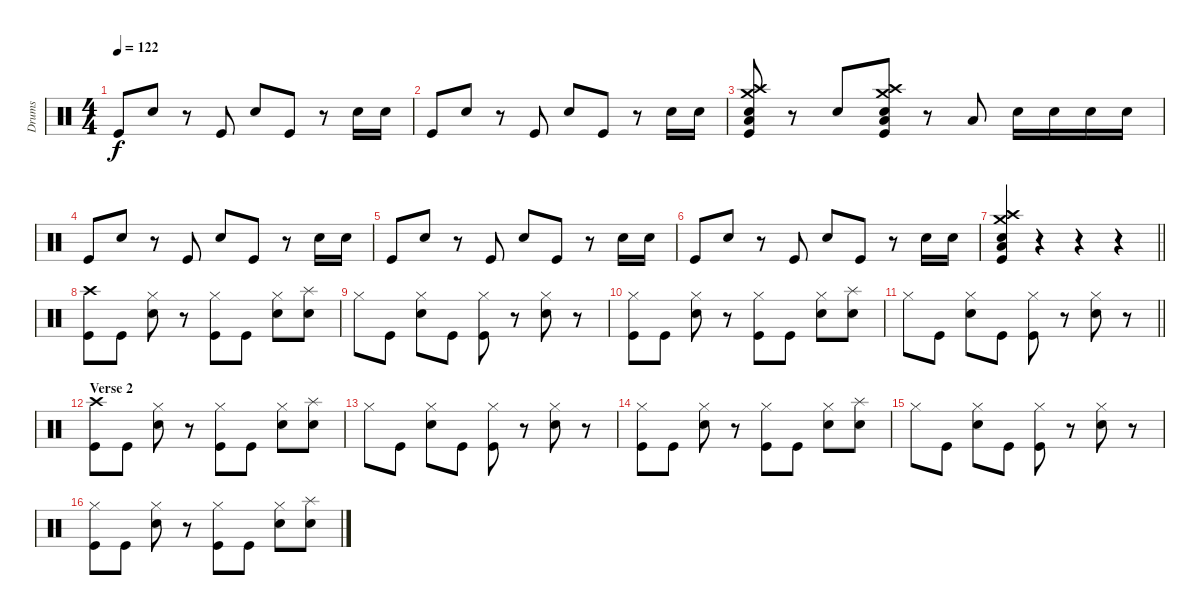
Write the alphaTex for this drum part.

\track ("Drums" "Drums") {instrument percussion}
\staff {score}
\articulation defaults
\ts (4 4)
\tempo 122
\clef neutral
\ks c "Kick (hit)".8{dy f} "Snare (hit) 2".8
r.8 "Kick (hit)".8 "Snare (hit) 2".8 "Kick (hit)".8 r.8 "Snare (hit) 2".16 "Snare (hit) 2".16 |
"Kick (hit)".8 "Snare (hit) 2".8 r.8 "Kick (hit)".8 "Snare (hit) 2".8 "Kick (hit)".8 r.8 "Snare (hit) 2".16 "Snare (hit) 2".16 |
("Crash high (hit)" "Crash medium (hit)" "Snare (hit) 2" "Low Tom (hit)" "Kick (hit)").8 r.8 "Snare (hit) 2".8 ("Crash high (hit)" "Crash medium (hit)" "Snare (hit) 2" "Low Tom (hit)" "Kick (hit)").8 r.8 "Low Tom (hit)".8 "Snare (hit) 2".16 "Snare (hit) 2".16 "Snare (hit) 2".16 "Snare (hit) 2".16 |
"Kick (hit)".8 "Snare (hit) 2".8 r.8 "Kick (hit)".8 "Snare (hit) 2".8 "Kick (hit)".8 r.8 "Snare (hit) 2".16 "Snare (hit) 2".16 |
"Kick (hit)".8 "Snare (hit) 2".8 r.8 "Kick (hit)".8 "Snare (hit) 2".8 "Kick (hit)".8 r.8 "Snare (hit) 2".16 "Snare (hit) 2".16 |
"Kick (hit)".8 "Snare (hit) 2".8 r.8 "Kick (hit)".8 "Snare (hit) 2".8 "Kick (hit)".8 r.8 "Snare (hit) 2".16 "Snare (hit) 2".16 |
\barLineRight lightlight
("Crash high (hit)" "Crash medium (hit)" "Snare (hit) 2" "Low Tom (hit)" "Kick (hit)").4 r.4 r.4 r.4 |
("Crash high (hit)" "Kick (hit)").8 "Kick (hit)".8 ("Hi-Hat (closed)" "Snare (hit) 2").8 r.8 ("Hi-Hat (closed)" "Kick (hit)").8 "Kick (hit)".8 ("Hi-Hat (closed)" "Hand Clap (hit)").8 ("Splash (hit)" "Electric Snare (hit)").8 |
"Hi-Hat (closed)".8 "Kick (hit)".8 ("Hi-Hat (closed)" "Snare (hit) 2").8 "Kick (hit)".8 ("Hi-Hat (closed)" "Kick (hit)").8 r.8 ("Hi-Hat (closed)" "Snare (hit) 2").8 r.8 |
("Hi-Hat (closed)" "Kick (hit)").8 "Kick (hit)".8 ("Hi-Hat (closed)" "Snare (hit) 2").8 r.8 ("Hi-Hat (closed)" "Kick (hit)").8 "Kick (hit)".8 ("Hi-Hat (closed)" "Hand Clap (hit)").8 ("Splash (hit)" "Electric Snare (hit)").8 |
\barLineRight lightlight "Hi-Hat (closed)".8 "Kick (hit)".8
("Hi-Hat (closed)" "Snare (hit) 2").8 "Kick (hit)".8 ("Hi-Hat (closed)" "Kick (hit)").8 r.8 ("Hi-Hat (closed)" "Snare (hit) 2").8 r.8 |
\section ("" "Verse 2")
("Crash high (hit)" "Kick (hit)").8 "Kick (hit)".8 ("Hi-Hat (closed)" "Snare (hit) 2").8 r.8 ("Hi-Hat (closed)" "Kick (hit)").8 "Kick (hit)".8 ("Hi-Hat (closed)" "Hand Clap (hit)").8 ("Splash (hit)" "Electric Snare (hit)").8 |
"Hi-Hat (closed)".8 "Kick (hit)".8 ("Hi-Hat (closed)" "Snare (hit) 2").8 "Kick (hit)".8 ("Hi-Hat (closed)" "Kick (hit)").8 r.8 ("Hi-Hat (closed)" "Snare (hit) 2").8 r.8 |
("Hi-Hat (closed)" "Kick (hit)").8 "Kick (hit)".8 ("Hi-Hat (closed)" "Snare (hit) 2").8 r.8 ("Hi-Hat (closed)" "Kick (hit)").8 "Kick (hit)".8 ("Hi-Hat (closed)" "Hand Clap (hit)").8 ("Splash (hit)" "Electric Snare (hit)").8 |
"Hi-Hat (closed)".8 "Kick (hit)".8 ("Hi-Hat (closed)" "Snare (hit) 2").8 "Kick (hit)".8 ("Hi-Hat (closed)" "Kick (hit)").8 r.8 ("Hi-Hat (closed)" "Snare (hit) 2").8 r.8 |
("Hi-Hat (closed)" "Kick (hit)").8 "Kick (hit)".8 ("Hi-Hat (closed)" "Snare (hit) 2").8 r.8 ("Hi-Hat (closed)" "Kick (hit)").8 "Kick (hit)".8 ("Hi-Hat (closed)" "Hand Clap (hit)").8 ("Splash (hit)" "Electric Snare (hit)").8
